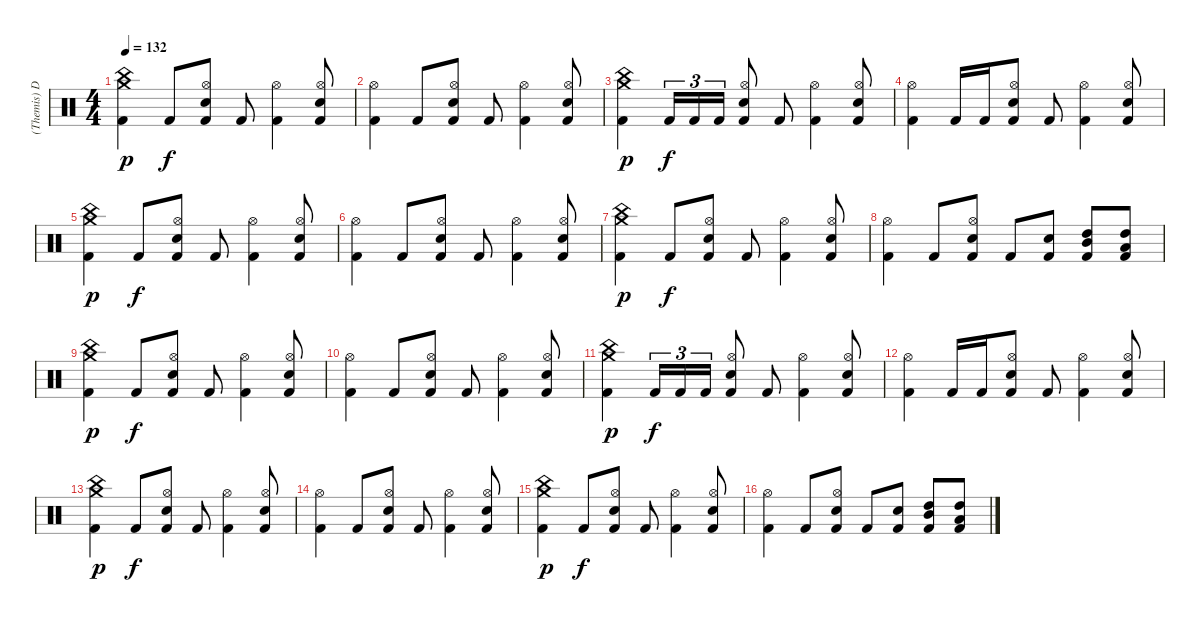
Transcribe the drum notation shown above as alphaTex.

\track ("(Themis) Drums" "(Themis) D") {instrument percussion}
\staff {score}
\articulation defaults
\ts (4 4)
\tempo 132
\clef neutral
\ks c
("Crash medium (hit)" "China (hit)" "Kick (hit) 2").4{dy p} "Kick (hit) 2".8{dy f} ("Hi-Hat (open)" "Electric Snare (hit)" "Kick (hit) 2").8 "Kick (hit) 2".8 ("Hi-Hat (open)" "Kick (hit) 2").4 ("Hi-Hat (open)" "Electric Snare (hit)" "Kick (hit) 2").8 |
("Hi-Hat (open)" "Kick (hit) 2").4 "Kick (hit) 2".8 ("Hi-Hat (open)" "Electric Snare (hit)" "Kick (hit) 2").8 "Kick (hit) 2".8 ("Hi-Hat (open)" "Kick (hit) 2").4 ("Hi-Hat (open)" "Electric Snare (hit)" "Kick (hit) 2").8 |
("Crash medium (hit)" "China (hit)" "Kick (hit) 2").4{dy p} "Kick (hit) 2".16{tu (3 2) dy f} "Kick (hit) 2".16{tu (3 2)} "Kick (hit) 2".16{tu (3 2)} ("Hi-Hat (open)" "Electric Snare (hit)" "Kick (hit) 2").8 "Kick (hit) 2".8 ("Hi-Hat (open)" "Kick (hit) 2").4 ("Hi-Hat (open)" "Electric Snare (hit)" "Kick (hit) 2").8 |
("Hi-Hat (open)" "Kick (hit) 2").4 "Kick (hit) 2".16 "Kick (hit) 2".16 ("Hi-Hat (open)" "Electric Snare (hit)" "Kick (hit) 2").8 "Kick (hit) 2".8 ("Hi-Hat (open)" "Kick (hit) 2").4 ("Hi-Hat (open)" "Electric Snare (hit)" "Kick (hit) 2").8 |
("Crash medium (hit)" "China (hit)" "Kick (hit) 2").4{dy p} "Kick (hit) 2".8{dy f} ("Hi-Hat (open)" "Electric Snare (hit)" "Kick (hit) 2").8 "Kick (hit) 2".8 ("Hi-Hat (open)" "Kick (hit) 2").4 ("Hi-Hat (open)" "Electric Snare (hit)" "Kick (hit) 2").8 |
("Hi-Hat (open)" "Kick (hit) 2").4 "Kick (hit) 2".8 ("Hi-Hat (open)" "Electric Snare (hit)" "Kick (hit) 2").8 "Kick (hit) 2".8 ("Hi-Hat (open)" "Kick (hit) 2").4 ("Hi-Hat (open)" "Electric Snare (hit)" "Kick (hit) 2").8 |
("Crash medium (hit)" "China (hit)" "Kick (hit) 2").4{dy p} "Kick (hit) 2".8{dy f} ("Hi-Hat (open)" "Electric Snare (hit)" "Kick (hit) 2").8 "Kick (hit) 2".8 ("Hi-Hat (open)" "Kick (hit) 2").4 ("Hi-Hat (open)" "Electric Snare (hit)" "Kick (hit) 2").8 |
("Hi-Hat (open)" "Kick (hit) 2").4 "Kick (hit) 2".8 ("Hi-Hat (open)" "Electric Snare (hit)" "Kick (hit) 2").8 "Kick (hit) 2".8 ("Electric Snare (hit)" "Kick (hit) 2").8 ("Mid Tom (hit)" "High Tom (hit)" "Kick (hit) 2").8 ("High Tom (hit)" "Low Tom (hit)" "Kick (hit) 2").8 |
("Crash medium (hit)" "China (hit)" "Kick (hit) 2").4{dy p} "Kick (hit) 2".8{dy f} ("Hi-Hat (open)" "Electric Snare (hit)" "Kick (hit) 2").8 "Kick (hit) 2".8 ("Hi-Hat (open)" "Kick (hit) 2").4 ("Hi-Hat (open)" "Electric Snare (hit)" "Kick (hit) 2").8 |
("Hi-Hat (open)" "Kick (hit) 2").4 "Kick (hit) 2".8 ("Hi-Hat (open)" "Electric Snare (hit)" "Kick (hit) 2").8 "Kick (hit) 2".8 ("Hi-Hat (open)" "Kick (hit) 2").4 ("Hi-Hat (open)" "Electric Snare (hit)" "Kick (hit) 2").8 |
("Crash medium (hit)" "China (hit)" "Kick (hit) 2").4{dy p} "Kick (hit) 2".16{tu (3 2) dy f} "Kick (hit) 2".16{tu (3 2)} "Kick (hit) 2".16{tu (3 2)} ("Hi-Hat (open)" "Electric Snare (hit)" "Kick (hit) 2").8 "Kick (hit) 2".8 ("Hi-Hat (open)" "Kick (hit) 2").4 ("Hi-Hat (open)" "Electric Snare (hit)" "Kick (hit) 2").8 |
("Hi-Hat (open)" "Kick (hit) 2").4 "Kick (hit) 2".16 "Kick (hit) 2".16 ("Hi-Hat (open)" "Electric Snare (hit)" "Kick (hit) 2").8 "Kick (hit) 2".8 ("Hi-Hat (open)" "Kick (hit) 2").4 ("Hi-Hat (open)" "Electric Snare (hit)" "Kick (hit) 2").8 |
("Crash medium (hit)" "China (hit)" "Kick (hit) 2").4{dy p} "Kick (hit) 2".8{dy f} ("Hi-Hat (open)" "Electric Snare (hit)" "Kick (hit) 2").8 "Kick (hit) 2".8 ("Hi-Hat (open)" "Kick (hit) 2").4 ("Hi-Hat (open)" "Electric Snare (hit)" "Kick (hit) 2").8 |
("Hi-Hat (open)" "Kick (hit) 2").4 "Kick (hit) 2".8 ("Hi-Hat (open)" "Electric Snare (hit)" "Kick (hit) 2").8 "Kick (hit) 2".8 ("Hi-Hat (open)" "Kick (hit) 2").4 ("Hi-Hat (open)" "Electric Snare (hit)" "Kick (hit) 2").8 |
("Crash medium (hit)" "China (hit)" "Kick (hit) 2").4{dy p} "Kick (hit) 2".8{dy f} ("Hi-Hat (open)" "Electric Snare (hit)" "Kick (hit) 2").8 "Kick (hit) 2".8 ("Hi-Hat (open)" "Kick (hit) 2").4 ("Hi-Hat (open)" "Electric Snare (hit)" "Kick (hit) 2").8 |
("Hi-Hat (open)" "Kick (hit) 2").4 "Kick (hit) 2".8 ("Hi-Hat (open)" "Electric Snare (hit)" "Kick (hit) 2").8 "Kick (hit) 2".8 ("Electric Snare (hit)" "Kick (hit) 2").8 ("Mid Tom (hit)" "High Tom (hit)" "Kick (hit) 2").8 ("High Tom (hit)" "Low Tom (hit)" "Kick (hit) 2").8
